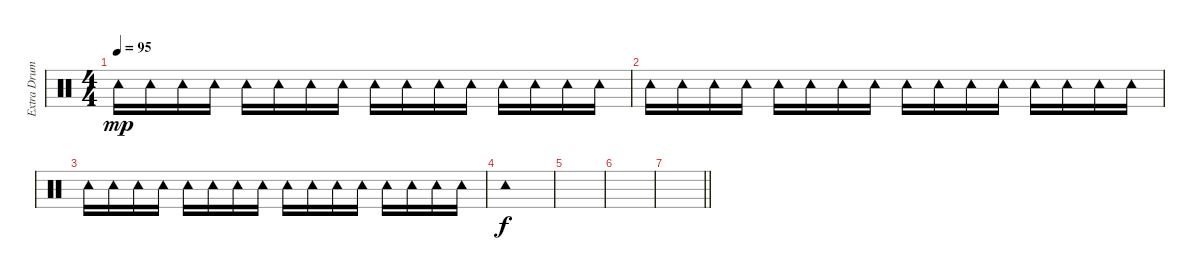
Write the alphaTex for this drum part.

\track ("Extra Drums" "Extra Drum") {instrument percussion}
\staff {score}
\articulation defaults
\ts (4 4)
\tempo 95
\clef neutral
\ks c "Tambourine (hit)".16{dy mp} "Tambourine (hit)".16 "Tambourine (hit)".16 "Tambourine (hit)".16 "Tambourine (hit)".16 "Tambourine (hit)".16 "Tambourine (hit)".16 "Tambourine (hit)".16 "Tambourine (hit)".16 "Tambourine (hit)".16 "Tambourine (hit)".16 "Tambourine (hit)".16 "Tambourine (hit)".16 "Tambourine (hit)".16 "Tambourine (hit)".16 "Tambourine (hit)".16
|
"Tambourine (hit)".16 "Tambourine (hit)".16 "Tambourine (hit)".16 "Tambourine (hit)".16 "Tambourine (hit)".16 "Tambourine (hit)".16 "Tambourine (hit)".16 "Tambourine (hit)".16 "Tambourine (hit)".16 "Tambourine (hit)".16 "Tambourine (hit)".16 "Tambourine (hit)".16 "Tambourine (hit)".16 "Tambourine (hit)".16 "Tambourine (hit)".16 "Tambourine (hit)".16 |
"Tambourine (hit)".16 "Tambourine (hit)".16 "Tambourine (hit)".16 "Tambourine (hit)".16 "Tambourine (hit)".16 "Tambourine (hit)".16 "Tambourine (hit)".16 "Tambourine (hit)".16 "Tambourine (hit)".16 "Tambourine (hit)".16 "Tambourine (hit)".16 "Tambourine (hit)".16 "Tambourine (hit)".16 "Tambourine (hit)".16 "Tambourine (hit)".16 "Tambourine (hit)".16 |
"Tambourine (hit)".1{dy f} |
|
|
\barLineRight lightlight
